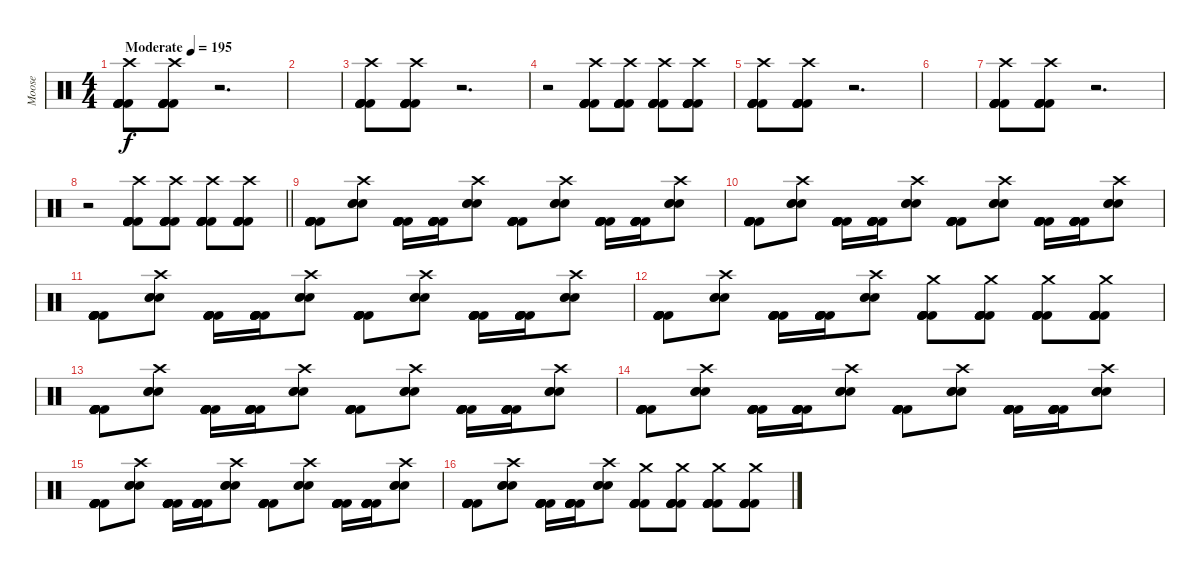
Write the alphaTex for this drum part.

\track ("Moose" "Moose") {instrument percussion}
\staff {score}
\articulation defaults
\ts (4 4)
\tempo (195 "Moderate")
\clef neutral
\ks c
("Kick (hit) 2" "Kick (hit) 2" "Kick (hit) 2" "Kick (hit) 2" "Kick (hit) 2" "Crash high (hit)").8{dy f} ("Kick (hit) 2" "Kick (hit) 2" "Kick (hit) 2" "Kick (hit) 2" "Kick (hit) 2" "Crash high (hit)").8 r.2{d} |
|
("Kick (hit) 2" "Kick (hit) 2" "Kick (hit) 2" "Kick (hit) 2" "Kick (hit) 2" "Crash high (hit)").8 ("Kick (hit) 2" "Kick (hit) 2" "Kick (hit) 2" "Kick (hit) 2" "Kick (hit) 2" "Crash high (hit)").8 r.2{d} |
r.2 ("Kick (hit) 2" "Kick (hit) 2" "Kick (hit) 2" "Kick (hit) 2" "Kick (hit) 2" "Crash high (hit)").8 ("Kick (hit) 2" "Kick (hit) 2" "Kick (hit) 2" "Kick (hit) 2" "Kick (hit) 2" "Crash high (hit)").8 ("Kick (hit) 2" "Kick (hit) 2" "Kick (hit) 2" "Kick (hit) 2" "Kick (hit) 2" "Crash high (hit)").8 ("Kick (hit) 2" "Kick (hit) 2" "Kick (hit) 2" "Kick (hit) 2" "Kick (hit) 2" "Crash high (hit)").8 |
("Kick (hit) 2" "Kick (hit) 2" "Kick (hit) 2" "Kick (hit) 2" "Kick (hit) 2" "Crash high (hit)").8 ("Kick (hit) 2" "Kick (hit) 2" "Kick (hit) 2" "Kick (hit) 2" "Kick (hit) 2" "Crash high (hit)").8 r.2{d} |
|
("Kick (hit) 2" "Kick (hit) 2" "Kick (hit) 2" "Kick (hit) 2" "Kick (hit) 2" "Crash high (hit)").8 ("Kick (hit) 2" "Kick (hit) 2" "Kick (hit) 2" "Kick (hit) 2" "Kick (hit) 2" "Crash high (hit)").8 r.2{d} |
\barLineRight lightlight
r.2 ("Kick (hit) 2" "Kick (hit) 2" "Kick (hit) 2" "Kick (hit) 2" "Kick (hit) 2" "Crash high (hit)").8 ("Kick (hit) 2" "Kick (hit) 2" "Kick (hit) 2" "Kick (hit) 2" "Kick (hit) 2" "Crash high (hit)").8 ("Kick (hit) 2" "Kick (hit) 2" "Kick (hit) 2" "Kick (hit) 2" "Kick (hit) 2" "Crash high (hit)").8 ("Kick (hit) 2" "Kick (hit) 2" "Kick (hit) 2" "Kick (hit) 2" "Kick (hit) 2" "Crash high (hit)").8 |
("Kick (hit) 2" "Kick (hit) 2" "Kick (hit) 2" "Kick (hit) 2" "Kick (hit) 2" "Kick (hit) 2").8 ("Electric Snare (hit)" "Electric Snare (hit)" "Electric Snare (hit)" "Crash high (hit)").8 ("Kick (hit) 2" "Kick (hit) 2" "Kick (hit) 2" "Kick (hit) 2" "Kick (hit) 2" "Kick (hit) 2").16 ("Kick (hit) 2" "Kick (hit) 2" "Kick (hit) 2" "Kick (hit) 2" "Kick (hit) 2" "Kick (hit) 2").16 ("Electric Snare (hit)" "Electric Snare (hit)" "Electric Snare (hit)" "Crash high (hit)").8 ("Kick (hit) 2" "Kick (hit) 2" "Kick (hit) 2" "Kick (hit) 2" "Kick (hit) 2" "Kick (hit) 2").8 ("Electric Snare (hit)" "Electric Snare (hit)" "Electric Snare (hit)" "Crash high (hit)").8 ("Kick (hit) 2" "Kick (hit) 2" "Kick (hit) 2" "Kick (hit) 2" "Kick (hit) 2" "Kick (hit) 2").16 ("Kick (hit) 2" "Kick (hit) 2" "Kick (hit) 2" "Kick (hit) 2" "Kick (hit) 2" "Kick (hit) 2").16 ("Electric Snare (hit)" "Electric Snare (hit)" "Electric Snare (hit)" "Crash high (hit)").8 |
("Kick (hit) 2" "Kick (hit) 2" "Kick (hit) 2" "Kick (hit) 2" "Kick (hit) 2" "Kick (hit) 2").8 ("Electric Snare (hit)" "Electric Snare (hit)" "Electric Snare (hit)" "Crash high (hit)").8 ("Kick (hit) 2" "Kick (hit) 2" "Kick (hit) 2" "Kick (hit) 2" "Kick (hit) 2" "Kick (hit) 2").16 ("Kick (hit) 2" "Kick (hit) 2" "Kick (hit) 2" "Kick (hit) 2" "Kick (hit) 2" "Kick (hit) 2").16 ("Electric Snare (hit)" "Electric Snare (hit)" "Electric Snare (hit)" "Crash high (hit)").8 ("Kick (hit) 2" "Kick (hit) 2" "Kick (hit) 2" "Kick (hit) 2" "Kick (hit) 2" "Kick (hit) 2").8 ("Electric Snare (hit)" "Electric Snare (hit)" "Electric Snare (hit)" "Crash high (hit)").8 ("Kick (hit) 2" "Kick (hit) 2" "Kick (hit) 2" "Kick (hit) 2" "Kick (hit) 2" "Kick (hit) 2").16 ("Kick (hit) 2" "Kick (hit) 2" "Kick (hit) 2" "Kick (hit) 2" "Kick (hit) 2" "Kick (hit) 2").16 ("Electric Snare (hit)" "Electric Snare (hit)" "Electric Snare (hit)" "Crash high (hit)").8 |
("Kick (hit) 2" "Kick (hit) 2" "Kick (hit) 2" "Kick (hit) 2" "Kick (hit) 2" "Kick (hit) 2").8 ("Electric Snare (hit)" "Electric Snare (hit)" "Electric Snare (hit)" "Crash high (hit)").8 ("Kick (hit) 2" "Kick (hit) 2" "Kick (hit) 2" "Kick (hit) 2" "Kick (hit) 2" "Kick (hit) 2").16 ("Kick (hit) 2" "Kick (hit) 2" "Kick (hit) 2" "Kick (hit) 2" "Kick (hit) 2" "Kick (hit) 2").16 ("Electric Snare (hit)" "Electric Snare (hit)" "Electric Snare (hit)" "Crash high (hit)").8 ("Kick (hit) 2" "Kick (hit) 2" "Kick (hit) 2" "Kick (hit) 2" "Kick (hit) 2" "Kick (hit) 2").8 ("Electric Snare (hit)" "Electric Snare (hit)" "Electric Snare (hit)" "Crash high (hit)").8 ("Kick (hit) 2" "Kick (hit) 2" "Kick (hit) 2" "Kick (hit) 2" "Kick (hit) 2" "Kick (hit) 2").16 ("Kick (hit) 2" "Kick (hit) 2" "Kick (hit) 2" "Kick (hit) 2" "Kick (hit) 2" "Kick (hit) 2").16 ("Electric Snare (hit)" "Electric Snare (hit)" "Electric Snare (hit)" "Crash high (hit)").8 |
("Kick (hit) 2" "Kick (hit) 2" "Kick (hit) 2" "Kick (hit) 2" "Kick (hit) 2" "Kick (hit) 2").8 ("Electric Snare (hit)" "Electric Snare (hit)" "Electric Snare (hit)" "Crash high (hit)").8 ("Kick (hit) 2" "Kick (hit) 2" "Kick (hit) 2" "Kick (hit) 2" "Kick (hit) 2" "Kick (hit) 2").16 ("Kick (hit) 2" "Kick (hit) 2" "Kick (hit) 2" "Kick (hit) 2" "Kick (hit) 2" "Kick (hit) 2").16 ("Electric Snare (hit)" "Electric Snare (hit)" "Electric Snare (hit)" "Crash high (hit)").8 ("Kick (hit) 2" "Kick (hit) 2" "Kick (hit) 2" "Kick (hit) 2" "Kick (hit) 2" "Crash medium (hit)").8 ("Kick (hit) 2" "Kick (hit) 2" "Kick (hit) 2" "Kick (hit) 2" "Kick (hit) 2" "Crash medium (hit)").8 ("Kick (hit) 2" "Kick (hit) 2" "Kick (hit) 2" "Kick (hit) 2" "Kick (hit) 2" "Crash medium (hit)").8 ("Kick (hit) 2" "Kick (hit) 2" "Kick (hit) 2" "Kick (hit) 2" "Kick (hit) 2" "Crash medium (hit)").8 |
("Kick (hit) 2" "Kick (hit) 2" "Kick (hit) 2" "Kick (hit) 2" "Kick (hit) 2" "Kick (hit) 2").8 ("Electric Snare (hit)" "Electric Snare (hit)" "Electric Snare (hit)" "Crash high (hit)").8 ("Kick (hit) 2" "Kick (hit) 2" "Kick (hit) 2" "Kick (hit) 2" "Kick (hit) 2" "Kick (hit) 2").16 ("Kick (hit) 2" "Kick (hit) 2" "Kick (hit) 2" "Kick (hit) 2" "Kick (hit) 2" "Kick (hit) 2").16 ("Electric Snare (hit)" "Electric Snare (hit)" "Electric Snare (hit)" "Crash high (hit)").8 ("Kick (hit) 2" "Kick (hit) 2" "Kick (hit) 2" "Kick (hit) 2" "Kick (hit) 2" "Kick (hit) 2").8 ("Electric Snare (hit)" "Electric Snare (hit)" "Electric Snare (hit)" "Crash high (hit)").8 ("Kick (hit) 2" "Kick (hit) 2" "Kick (hit) 2" "Kick (hit) 2" "Kick (hit) 2" "Kick (hit) 2").16 ("Kick (hit) 2" "Kick (hit) 2" "Kick (hit) 2" "Kick (hit) 2" "Kick (hit) 2" "Kick (hit) 2").16 ("Electric Snare (hit)" "Electric Snare (hit)" "Electric Snare (hit)" "Crash high (hit)").8 |
("Kick (hit) 2" "Kick (hit) 2" "Kick (hit) 2" "Kick (hit) 2" "Kick (hit) 2" "Kick (hit) 2").8 ("Electric Snare (hit)" "Electric Snare (hit)" "Electric Snare (hit)" "Crash high (hit)").8 ("Kick (hit) 2" "Kick (hit) 2" "Kick (hit) 2" "Kick (hit) 2" "Kick (hit) 2" "Kick (hit) 2").16 ("Kick (hit) 2" "Kick (hit) 2" "Kick (hit) 2" "Kick (hit) 2" "Kick (hit) 2" "Kick (hit) 2").16 ("Electric Snare (hit)" "Electric Snare (hit)" "Electric Snare (hit)" "Crash high (hit)").8 ("Kick (hit) 2" "Kick (hit) 2" "Kick (hit) 2" "Kick (hit) 2" "Kick (hit) 2" "Kick (hit) 2").8 ("Electric Snare (hit)" "Electric Snare (hit)" "Electric Snare (hit)" "Crash high (hit)").8 ("Kick (hit) 2" "Kick (hit) 2" "Kick (hit) 2" "Kick (hit) 2" "Kick (hit) 2" "Kick (hit) 2").16 ("Kick (hit) 2" "Kick (hit) 2" "Kick (hit) 2" "Kick (hit) 2" "Kick (hit) 2" "Kick (hit) 2").16 ("Electric Snare (hit)" "Electric Snare (hit)" "Electric Snare (hit)" "Crash high (hit)").8 |
("Kick (hit) 2" "Kick (hit) 2" "Kick (hit) 2" "Kick (hit) 2" "Kick (hit) 2" "Kick (hit) 2").8 ("Electric Snare (hit)" "Electric Snare (hit)" "Electric Snare (hit)" "Crash high (hit)").8 ("Kick (hit) 2" "Kick (hit) 2" "Kick (hit) 2" "Kick (hit) 2" "Kick (hit) 2" "Kick (hit) 2").16 ("Kick (hit) 2" "Kick (hit) 2" "Kick (hit) 2" "Kick (hit) 2" "Kick (hit) 2" "Kick (hit) 2").16 ("Electric Snare (hit)" "Electric Snare (hit)" "Electric Snare (hit)" "Crash high (hit)").8 ("Kick (hit) 2" "Kick (hit) 2" "Kick (hit) 2" "Kick (hit) 2" "Kick (hit) 2" "Kick (hit) 2").8 ("Electric Snare (hit)" "Electric Snare (hit)" "Electric Snare (hit)" "Crash high (hit)").8 ("Kick (hit) 2" "Kick (hit) 2" "Kick (hit) 2" "Kick (hit) 2" "Kick (hit) 2" "Kick (hit) 2").16 ("Kick (hit) 2" "Kick (hit) 2" "Kick (hit) 2" "Kick (hit) 2" "Kick (hit) 2" "Kick (hit) 2").16 ("Electric Snare (hit)" "Electric Snare (hit)" "Electric Snare (hit)" "Crash high (hit)").8 |
("Kick (hit) 2" "Kick (hit) 2" "Kick (hit) 2" "Kick (hit) 2" "Kick (hit) 2" "Kick (hit) 2").8 ("Electric Snare (hit)" "Electric Snare (hit)" "Electric Snare (hit)" "Crash high (hit)").8 ("Kick (hit) 2" "Kick (hit) 2" "Kick (hit) 2" "Kick (hit) 2" "Kick (hit) 2" "Kick (hit) 2").16 ("Kick (hit) 2" "Kick (hit) 2" "Kick (hit) 2" "Kick (hit) 2" "Kick (hit) 2" "Kick (hit) 2").16 ("Electric Snare (hit)" "Electric Snare (hit)" "Electric Snare (hit)" "Crash high (hit)").8 ("Kick (hit) 2" "Kick (hit) 2" "Kick (hit) 2" "Kick (hit) 2" "Kick (hit) 2" "Crash medium (hit)").8 ("Kick (hit) 2" "Kick (hit) 2" "Kick (hit) 2" "Kick (hit) 2" "Kick (hit) 2" "Crash medium (hit)").8 ("Kick (hit) 2" "Kick (hit) 2" "Kick (hit) 2" "Kick (hit) 2" "Kick (hit) 2" "Crash medium (hit)").8 ("Kick (hit) 2" "Kick (hit) 2" "Kick (hit) 2" "Kick (hit) 2" "Kick (hit) 2" "Crash medium (hit)").8
